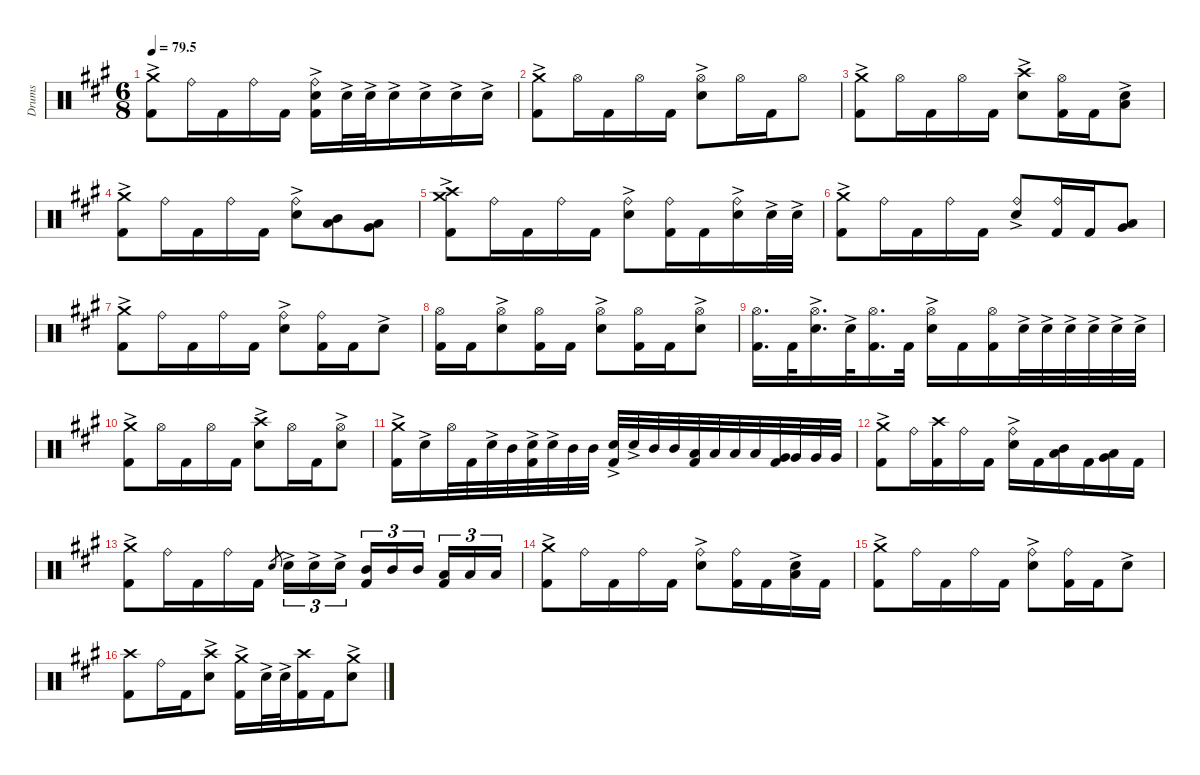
\defaultSystemsLayout 4
\hideDynamics
\bracketExtendMode nobrackets
\otherSystemsTrackNameOrientation horizontal
\track ("Drumkit (don't unmute)" "Drums") {mute instrument percussion}
\staff {score}
\articulation defaults
\ts (6 8)
\tempo
79.5
\accidentals auto
\clef neutral
\ottava regular
\simile none
\ks a
("Crash medium (hit)"{ac acc forcenatural} "Kick (hit) 2"{acc forcenatural}).8{dy f beam Down} "Ride (bell)"{acc forcenatural}.16{beam Down} "Kick (hit) 2"{acc forcenatural}.16{beam Down} "Ride (bell)"{acc forcenatural}.16{beam Down} "Kick (hit) 2"{acc forcenatural}.16{beam Down} ("Ride (bell)"{acc forcenatural} "Snare (hit) 2"{ac acc forcenatural} "Kick (hit) 2"{acc forcenatural}).16{beam Down} "Snare (hit) 2"{ac acc forcenatural}.32{beam Down} "Snare (hit) 2"{ac acc forcenatural}.32{beam Down} "Snare (hit) 2"{ac acc forcenatural}.16{beam Down} "Snare (hit) 2"{ac acc forcenatural}.16{beam Down} "Snare (hit) 2"{ac acc forcenatural}.16{beam Down} "Snare (hit) 2"{ac acc forcenatural}.16{beam Down} |
("Crash medium (hit)"{ac acc forcenatural} "Kick (hit) 2"{acc forcenatural}).8{beam Down} "Hi-Hat (open)"{acc forcenatural}.16{beam Down} "Kick (hit) 2"{acc forcenatural}.16{beam Down} "Hi-Hat (open)"{acc forcenatural}.16{beam Down} "Kick (hit) 2"{acc forcenatural}.16{beam Down} ("Hi-Hat (open)"{acc forcenatural} "Snare (hit) 2"{ac acc forcenatural}).8{beam Down} "Hi-Hat (open)"{acc forcenatural}.16{beam Down} "Kick (hit) 2"{acc forcenatural}.16{beam Down} "Hi-Hat (open)"{acc forcenatural}.8{beam Down} |
("Crash medium (hit)"{ac acc forcenatural} "Kick (hit) 2"{acc forcenatural}).8{beam Down} "Hi-Hat (open)"{acc forcenatural}.16{beam Down} "Kick (hit) 2"{acc forcenatural}.16{beam Down} "Hi-Hat (open)"{acc forcenatural}.16{beam Down} "Kick (hit) 2"{acc forcenatural}.16{beam Down} ("Crash high (hit)"{acc forcenatural} "Snare (hit) 2"{ac acc forcenatural}).8{beam Down} ("Hi-Hat (open)"{acc forcenatural} "Kick (hit) 2"{acc forcenatural}).16{beam Down} "Kick (hit) 2"{acc forcenatural}.16{beam Down} ("Snare (hit) 2"{ac acc forcenatural} "Low Tom (hit)"{acc forcenatural}).8{beam Down} |
("Crash medium (hit)"{ac acc forcenatural} "Kick (hit) 2"{acc forcenatural}).8{beam Down} "Ride (bell)"{acc forcenatural}.16{beam Down} "Kick (hit) 2"{acc forcenatural}.16{beam Down} "Ride (bell)"{acc forcenatural}.16{beam Down} "Kick (hit) 2"{acc forcenatural}.16{beam Down} ("Ride (bell)"{acc forcenatural} "Snare (hit) 2"{ac acc forcenatural}).8{beam Down} ("Mid Tom (hit)"{acc forcenatural} "Low Tom (hit)"{acc forcenatural}).8{beam Down} ("Low Tom (hit)"{acc forcenatural} "Very Low Tom (hit)"{acc forcenatural}).8{beam Down} |
("Crash medium (hit)"{ac acc forcenatural} "Crash high (hit)"{acc forcenatural} "Kick (hit) 2"{acc forcenatural}).8{beam Down} "Ride (bell)"{acc forcenatural}.16{beam Down} "Kick (hit) 2"{acc forcenatural}.16{beam Down} "Ride (bell)"{acc forcenatural}.16{beam Down} "Kick (hit) 2"{acc forcenatural}.16{beam Down} ("Ride (bell)"{acc forcenatural} "Snare (hit) 2"{ac acc forcenatural}).8{beam Down} ("Ride (bell)"{acc forcenatural} "Kick (hit) 2"{acc forcenatural}).16{beam Down} "Kick (hit) 2"{acc forcenatural}.16{beam Down} ("Ride (bell)"{acc forcenatural} "Snare (hit) 2"{ac acc forcenatural}).16{beam Down} "Snare (hit) 2"{ac acc forcenatural}.32{beam Down} "Snare (hit) 2"{ac acc forcenatural}.32{beam Down} |
("Crash medium (hit)"{ac acc forcenatural} "Kick (hit) 2"{acc forcenatural}).8{beam Down} "Ride (bell)"{acc forcenatural}.16{beam Down} "Kick (hit) 2"{acc forcenatural}.16{beam Down} "Ride (bell)"{acc forcenatural}.16{beam Down} "Kick (hit) 2"{acc forcenatural}.16{beam Down} ("Ride (bell)"{acc forcenatural} "Snare (hit) 2"{ac acc forcenatural}).8{beam Up} ("Ride (bell)"{acc forcenatural} "Kick (hit) 2"{acc forcenatural}).16{beam Up} "Kick (hit) 2"{acc forcenatural}.16{beam Up} ("Low Tom (hit)"{acc forcenatural} "Very Low Tom (hit)"{acc forcenatural}).8{beam Up} |
("Crash medium (hit)"{ac acc forcenatural} "Kick (hit) 2"{acc forcenatural}).8{beam Down} "Ride (bell)"{acc forcenatural}.16{beam Down} "Kick (hit) 2"{acc forcenatural}.16{beam Down} "Ride (bell)"{acc forcenatural}.16{beam Down} "Kick (hit) 2"{acc forcenatural}.16{beam Down} ("Ride (bell)"{acc forcenatural} "Snare (hit) 2"{ac acc forcenatural}).8{beam Down} ("Ride (bell)"{acc forcenatural} "Kick (hit) 2"{acc forcenatural}).16{beam Down} "Kick (hit) 2"{acc forcenatural}.16{beam Down} "Snare (hit) 2"{ac acc forcenatural}.8{beam Down} |
("Hi-Hat (open)"{acc forcenatural} "Kick (hit) 2"{acc forcenatural}).16{beam Down} "Kick (hit) 2"{acc forcenatural}.16{beam Down} ("Hi-Hat (open)"{acc forcenatural} "Snare (hit) 2"{ac acc forcenatural}).8{beam Down} ("Hi-Hat (open)"{acc forcenatural} "Kick (hit) 2"{acc forcenatural}).16{beam Down} "Kick (hit) 2"{acc forcenatural}.16{beam Down} ("Hi-Hat (open)"{acc forcenatural} "Snare (hit) 2"{ac acc forcenatural}).8{beam Down} ("Hi-Hat (open)"{acc forcenatural} "Kick (hit) 2"{acc forcenatural}).16{beam Down} "Kick (hit) 2"{acc forcenatural}.16{beam Down} ("Hi-Hat (open)"{acc forcenatural} "Snare (hit) 2"{ac acc forcenatural}).8{beam Down} |
("Hi-Hat (open)"{acc forcenatural} "Kick (hit) 2"{acc forcenatural}).16{d beam Down} "Kick (hit) 2"{acc forcenatural}.32{beam Down} ("Hi-Hat (open)"{acc forcenatural} "Snare (hit) 2"{ac acc forcenatural}).16{d beam Down} "Snare (hit) 2"{ac acc forcenatural}.32{beam Down} ("Hi-Hat (open)"{acc forcenatural} "Kick (hit) 2"{acc forcenatural}).16{d beam Down} "Kick (hit) 2"{acc forcenatural}.32{beam Down} ("Hi-Hat (open)"{acc forcenatural} "Snare (hit) 2"{ac acc forcenatural}).16{beam Down} "Kick (hit) 2"{acc forcenatural}.16{beam Down} ("Hi-Hat (open)"{acc forcenatural} "Kick (hit) 2"{acc forcenatural}).16{beam Down} "Snare (hit) 2"{ac acc forcenatural}.32{beam Down} "Snare (hit) 2"{ac acc forcenatural}.32{beam Down} "Snare (hit) 2"{ac acc forcenatural}.32{beam Down} "Snare (hit) 2"{ac acc forcenatural}.32{beam Down} "Snare (hit) 2"{ac acc forcenatural}.32{beam Down} "Snare (hit) 2"{ac acc forcenatural}.32{beam Down} |
("Crash medium (hit)"{ac acc forcenatural} "Kick (hit) 2"{acc forcenatural}).8{beam Down} "Hi-Hat (open)"{acc forcenatural}.16{beam Down} "Kick (hit) 2"{acc forcenatural}.16{beam Down} "Hi-Hat (open)"{acc forcenatural}.16{beam Down} "Kick (hit) 2"{acc forcenatural}.16{beam Down} ("Crash high (hit)"{acc forcenatural} "Snare (hit) 2"{ac acc forcenatural}).8{beam Down} "Hi-Hat (open)"{acc forcenatural}.16{beam Down} "Kick (hit) 2"{acc forcenatural}.16{beam Down} ("Hi-Hat (open)"{acc forcenatural} "Snare (hit) 2"{ac acc forcenatural}).8{beam Down} |
("Crash medium (hit)"{ac acc forcenatural} "Kick (hit) 2"{acc forcenatural}).16{beam Down} "Snare (hit) 2"{ac acc forcenatural}.16{beam Down} "Hi-Hat (open)"{acc forcenatural}.32{beam Down} "Kick (hit) 2"{acc forcenatural}.32{beam Down} "Snare (hit) 2"{ac acc forcenatural}.32{beam Down} "Mid Tom (hit)"{acc forcenatural}.32{beam Down} ("Snare (hit) 2"{ac acc forcenatural} "Kick (hit) 2"{acc forcenatural}).32{beam Down} "Snare (hit) 2"{ac acc forcenatural}.32{beam Down} "Mid Tom (hit)"{acc forcenatural}.32{beam Down} "Mid Tom (hit)"{acc forcenatural}.32{beam Down} ("Snare (hit) 2"{ac acc forcenatural} "Kick (hit) 2"{acc forcenatural}).32{beam Up} "Snare (hit) 2"{ac acc forcenatural}.32{beam Up} "Mid Tom (hit)"{acc forcenatural}.32{beam Up} "Mid Tom (hit)"{acc forcenatural}.32{beam Up} ("Low Tom (hit)"{acc forcenatural} "Kick (hit) 2"{acc forcenatural}).32{beam Up} "Low Tom (hit)"{acc forcenatural}.32{beam Up} "Low Tom (hit)"{acc forcenatural}.32{beam Up} "Low Tom (hit)"{acc forcenatural}.32{beam Up} ("Very Low Tom (hit)"{acc forcenatural} "Kick (hit) 2"{acc forcenatural}).32{beam Up} "Very Low Tom (hit)"{acc forcenatural}.32{beam Up} "Very Low Tom (hit)"{acc forcenatural}.32{beam Up} "Very Low Tom (hit)"{acc forcenatural}.32{beam Up} |
("Crash medium (hit)"{ac acc forcenatural} "Kick (hit) 2"{acc forcenatural}).8{beam Down} "Ride (bell)"{acc forcenatural}.16{beam Down} ("Crash high (hit)"{acc forcenatural} "Kick (hit) 2"{acc forcenatural}).16{beam Down} "Ride (bell)"{acc forcenatural}.16{beam Down} "Kick (hit) 2"{acc forcenatural}.16{beam Down} ("Ride (bell)"{acc forcenatural} "Snare (hit) 2"{ac acc forcenatural}).16{beam Down} "Kick (hit) 2"{acc forcenatural}.16{beam Down} ("Mid Tom (hit)"{acc forcenatural} "Low Tom (hit)"{acc forcenatural}).16{beam Down} "Kick (hit) 2"{acc forcenatural}.16{beam Down} ("Low Tom (hit)"{acc forcenatural} "Very Low Tom (hit)"{acc forcenatural}).16{beam Down} "Kick (hit) 2"{acc forcenatural}.16{beam Down} |
("Crash medium (hit)"{ac acc forcenatural} "Kick (hit) 2"{acc forcenatural}).8{beam Down} "Ride (bell)"{acc forcenatural}.16{beam Down} "Kick (hit) 2"{acc forcenatural}.16{beam Down} "Ride (bell)"{acc forcenatural}.16{beam Down} "Kick (hit) 2"{acc forcenatural}.16{beam Down} "Snare (hit) 2"{acc forcenatural}.8{gr beam Up} "Snare (hit) 2"{ac acc forcenatural}.16{tu (3 2) beam Down} "Snare (hit) 2"{ac acc forcenatural}.16{tu (3 2) beam Down} "Snare (hit) 2"{ac acc forcenatural}.16{tu (3 2) beam Down} ("Mid Tom (hit)"{acc forcenatural} "Kick (hit) 2"{acc forcenatural}).16{tu (3 2) beam Up} "Mid Tom (hit)"{acc forcenatural}.16{tu (3 2) beam Up} "Mid Tom (hit)"{acc forcenatural}.16{tu (3 2) beam Up} ("Low Tom (hit)"{acc forcenatural} "Kick (hit) 2"{acc forcenatural}).16{tu (3 2) beam Up} "Low Tom (hit)"{acc forcenatural}.16{tu (3 2) beam Up} "Low Tom (hit)"{acc forcenatural}.16{tu (3 2) beam Up} |
("Crash medium (hit)"{ac acc forcenatural} "Kick (hit) 2"{acc forcenatural}).8{beam Down} "Ride (bell)"{acc forcenatural}.16{beam Down} "Kick (hit) 2"{acc forcenatural}.16{beam Down} "Ride (bell)"{acc forcenatural}.16{beam Down} "Kick (hit) 2"{acc forcenatural}.16{beam Down} ("Ride (bell)"{acc forcenatural} "Snare (hit) 2"{ac acc forcenatural}).8{beam Down} ("Ride (bell)"{acc forcenatural} "Kick (hit) 2"{acc forcenatural}).16{beam Down} "Kick (hit) 2"{acc forcenatural}.16{beam Down} ("Snare (hit) 2"{ac acc forcenatural} "Low Tom (hit)"{acc forcenatural}).16{beam Down} "Kick (hit) 2"{acc forcenatural}.16{beam Down} |
("Crash medium (hit)"{ac acc forcenatural} "Kick (hit) 2"{acc forcenatural}).8{beam Down} "Ride (bell)"{acc forcenatural}.16{beam Down} "Kick (hit) 2"{acc forcenatural}.16{beam Down} "Ride (bell)"{acc forcenatural}.16{beam Down} "Kick (hit) 2"{acc forcenatural}.16{beam Down} ("Ride (bell)"{acc forcenatural} "Snare (hit) 2"{ac acc forcenatural}).8{beam Down} ("Ride (bell)"{acc forcenatural} "Kick (hit) 2"{acc forcenatural}).16{beam Down} "Kick (hit) 2"{acc forcenatural}.16{beam Down} "Snare (hit) 2"{ac acc forcenatural}.8{beam Down} |
("Crash high (hit)"{acc forcenatural} "Kick (hit) 2"{acc forcenatural}).8{beam Down} "Ride (bell)"{acc forcenatural}.16{beam Down} "Kick (hit) 2"{acc forcenatural}.16{beam Down} ("Crash high (hit)"{acc forcenatural} "Snare (hit) 2"{ac acc forcenatural}).8{beam Down} ("Crash medium (hit)"{ac acc forcenatural} "Kick (hit) 2"{acc forcenatural}).16{beam Down} "Snare (hit) 2"{ac acc forcenatural}.32{beam Down} "Snare (hit) 2"{ac acc forcenatural}.32{beam Down} ("Crash high (hit)"{acc forcenatural} "Kick (hit) 2"{acc forcenatural}).16{beam Down} "Kick (hit) 2"{acc forcenatural}.16{beam Down} ("Crash medium (hit)"{ac acc forcenatural} "Snare (hit) 2"{ac acc forcenatural}).8{beam Down}
